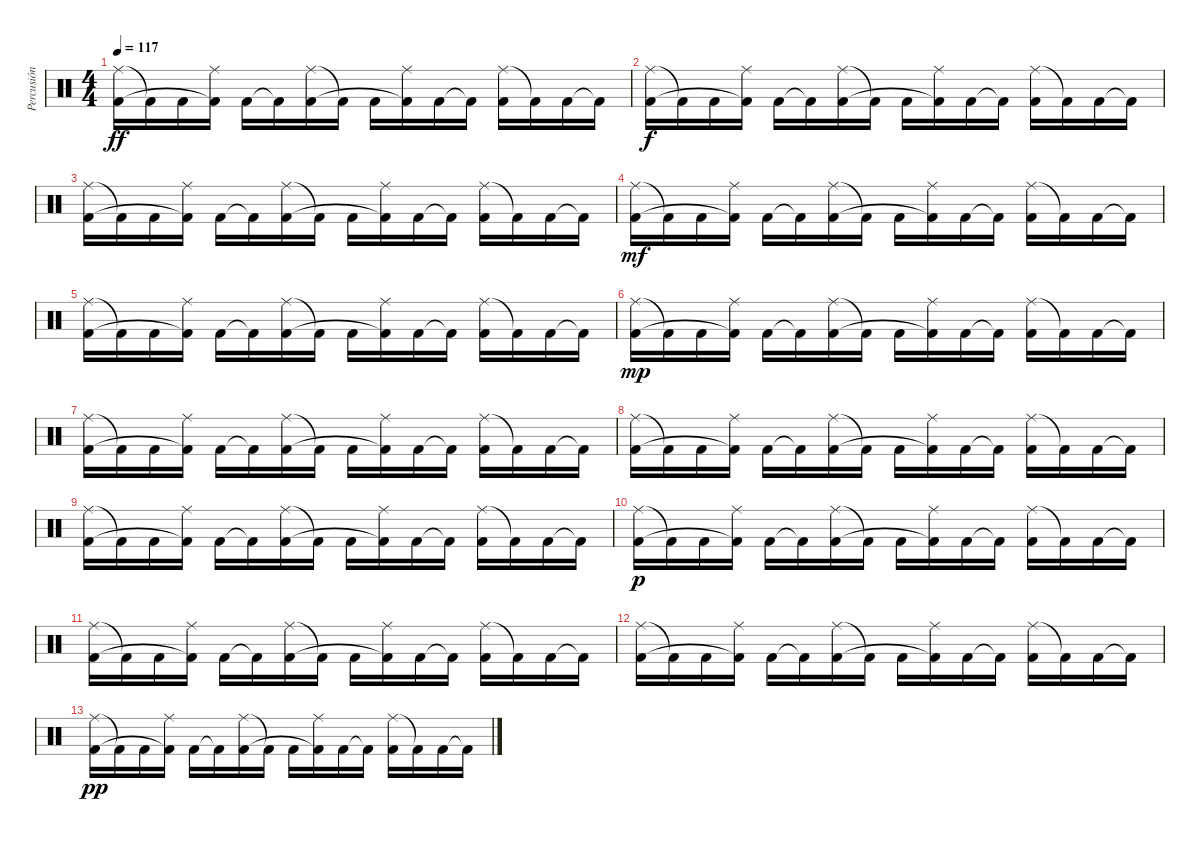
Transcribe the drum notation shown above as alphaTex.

\track ("Percusión" "Percusión") {instrument percussion}
\staff {score}
\articulation defaults
\ts (4 4)
\tempo 117
\clef neutral
\ks c
("Ride (middle)" "Kick (hit) 2").16{dy ff} "Kick (hit) 2"{t}.16 "Kick (hit) 2".16 ("Ride (middle)" "Kick (hit) 2"{t}).16 "Kick (hit) 2".16 "Kick (hit) 2"{t}.16 ("Ride (middle)" "Kick (hit) 2").16 "Kick (hit) 2"{t}.16 "Kick (hit) 2".16 ("Ride (middle)" "Kick (hit) 2"{t}).16 "Kick (hit) 2".16 "Kick (hit) 2"{t}.16 ("Ride (middle)" "Kick (hit) 2").16 "Kick (hit) 2"{t}.16 "Kick (hit) 2".16 "Kick (hit) 2"{t}.16 |
("Ride (middle)" "Kick (hit) 2").16{dy f} "Kick (hit) 2"{t}.16 "Kick (hit) 2".16 ("Ride (middle)" "Kick (hit) 2"{t}).16 "Kick (hit) 2".16 "Kick (hit) 2"{t}.16 ("Ride (middle)" "Kick (hit) 2").16 "Kick (hit) 2"{t}.16 "Kick (hit) 2".16 ("Ride (middle)" "Kick (hit) 2"{t}).16 "Kick (hit) 2".16 "Kick (hit) 2"{t}.16 ("Ride (middle)" "Kick (hit) 2").16 "Kick (hit) 2"{t}.16 "Kick (hit) 2".16 "Kick (hit) 2"{t}.16 |
("Ride (middle)" "Kick (hit) 2").16 "Kick (hit) 2"{t}.16 "Kick (hit) 2".16 ("Ride (middle)" "Kick (hit) 2"{t}).16 "Kick (hit) 2".16 "Kick (hit) 2"{t}.16 ("Ride (middle)" "Kick (hit) 2").16 "Kick (hit) 2"{t}.16 "Kick (hit) 2".16 ("Ride (middle)" "Kick (hit) 2"{t}).16 "Kick (hit) 2".16 "Kick (hit) 2"{t}.16 ("Ride (middle)" "Kick (hit) 2").16 "Kick (hit) 2"{t}.16 "Kick (hit) 2".16 "Kick (hit) 2"{t}.16 |
("Ride (middle)" "Kick (hit) 2").16{dy mf} "Kick (hit) 2"{t}.16 "Kick (hit) 2".16 ("Ride (middle)" "Kick (hit) 2"{t}).16 "Kick (hit) 2".16 "Kick (hit) 2"{t}.16 ("Ride (middle)" "Kick (hit) 2").16 "Kick (hit) 2"{t}.16 "Kick (hit) 2".16 ("Ride (middle)" "Kick (hit) 2"{t}).16 "Kick (hit) 2".16 "Kick (hit) 2"{t}.16 ("Ride (middle)" "Kick (hit) 2").16 "Kick (hit) 2"{t}.16 "Kick (hit) 2".16 "Kick (hit) 2"{t}.16 |
("Ride (middle)" "Kick (hit) 2").16 "Kick (hit) 2"{t}.16 "Kick (hit) 2".16 ("Ride (middle)" "Kick (hit) 2"{t}).16 "Kick (hit) 2".16 "Kick (hit) 2"{t}.16 ("Ride (middle)" "Kick (hit) 2").16 "Kick (hit) 2"{t}.16 "Kick (hit) 2".16 ("Ride (middle)" "Kick (hit) 2"{t}).16 "Kick (hit) 2".16 "Kick (hit) 2"{t}.16 ("Ride (middle)" "Kick (hit) 2").16 "Kick (hit) 2"{t}.16 "Kick (hit) 2".16 "Kick (hit) 2"{t}.16 |
("Ride (middle)" "Kick (hit) 2").16{dy mp} "Kick (hit) 2"{t}.16 "Kick (hit) 2".16 ("Ride (middle)" "Kick (hit) 2"{t}).16 "Kick (hit) 2".16 "Kick (hit) 2"{t}.16 ("Ride (middle)" "Kick (hit) 2").16 "Kick (hit) 2"{t}.16 "Kick (hit) 2".16 ("Ride (middle)" "Kick (hit) 2"{t}).16 "Kick (hit) 2".16 "Kick (hit) 2"{t}.16 ("Ride (middle)" "Kick (hit) 2").16 "Kick (hit) 2"{t}.16 "Kick (hit) 2".16 "Kick (hit) 2"{t}.16 |
("Ride (middle)" "Kick (hit) 2").16 "Kick (hit) 2"{t}.16 "Kick (hit) 2".16 ("Ride (middle)" "Kick (hit) 2"{t}).16 "Kick (hit) 2".16 "Kick (hit) 2"{t}.16 ("Ride (middle)" "Kick (hit) 2").16 "Kick (hit) 2"{t}.16 "Kick (hit) 2".16 ("Ride (middle)" "Kick (hit) 2"{t}).16 "Kick (hit) 2".16 "Kick (hit) 2"{t}.16 ("Ride (middle)" "Kick (hit) 2").16 "Kick (hit) 2"{t}.16 "Kick (hit) 2".16 "Kick (hit) 2"{t}.16 |
("Ride (middle)" "Kick (hit) 2").16 "Kick (hit) 2"{t}.16 "Kick (hit) 2".16 ("Ride (middle)" "Kick (hit) 2"{t}).16 "Kick (hit) 2".16 "Kick (hit) 2"{t}.16 ("Ride (middle)" "Kick (hit) 2").16 "Kick (hit) 2"{t}.16 "Kick (hit) 2".16 ("Ride (middle)" "Kick (hit) 2"{t}).16 "Kick (hit) 2".16 "Kick (hit) 2"{t}.16 ("Ride (middle)" "Kick (hit) 2").16 "Kick (hit) 2"{t}.16 "Kick (hit) 2".16 "Kick (hit) 2"{t}.16 |
("Ride (middle)" "Kick (hit) 2").16 "Kick (hit) 2"{t}.16 "Kick (hit) 2".16 ("Ride (middle)" "Kick (hit) 2"{t}).16 "Kick (hit) 2".16 "Kick (hit) 2"{t}.16 ("Ride (middle)" "Kick (hit) 2").16 "Kick (hit) 2"{t}.16 "Kick (hit) 2".16 ("Ride (middle)" "Kick (hit) 2"{t}).16 "Kick (hit) 2".16 "Kick (hit) 2"{t}.16 ("Ride (middle)" "Kick (hit) 2").16 "Kick (hit) 2"{t}.16 "Kick (hit) 2".16 "Kick (hit) 2"{t}.16 |
("Ride (middle)" "Kick (hit) 2").16{dy p} "Kick (hit) 2"{t}.16 "Kick (hit) 2".16 ("Ride (middle)" "Kick (hit) 2"{t}).16 "Kick (hit) 2".16 "Kick (hit) 2"{t}.16 ("Ride (middle)" "Kick (hit) 2").16 "Kick (hit) 2"{t}.16 "Kick (hit) 2".16 ("Ride (middle)" "Kick (hit) 2"{t}).16 "Kick (hit) 2".16 "Kick (hit) 2"{t}.16 ("Ride (middle)" "Kick (hit) 2").16 "Kick (hit) 2"{t}.16 "Kick (hit) 2".16 "Kick (hit) 2"{t}.16 |
("Ride (middle)" "Kick (hit) 2").16 "Kick (hit) 2"{t}.16 "Kick (hit) 2".16 ("Ride (middle)" "Kick (hit) 2"{t}).16 "Kick (hit) 2".16 "Kick (hit) 2"{t}.16 ("Ride (middle)" "Kick (hit) 2").16 "Kick (hit) 2"{t}.16 "Kick (hit) 2".16 ("Ride (middle)" "Kick (hit) 2"{t}).16 "Kick (hit) 2".16 "Kick (hit) 2"{t}.16 ("Ride (middle)" "Kick (hit) 2").16 "Kick (hit) 2"{t}.16 "Kick (hit) 2".16 "Kick (hit) 2"{t}.16 |
("Ride (middle)" "Kick (hit) 2").16 "Kick (hit) 2"{t}.16 "Kick (hit) 2".16 ("Ride (middle)" "Kick (hit) 2"{t}).16 "Kick (hit) 2".16 "Kick (hit) 2"{t}.16 ("Ride (middle)" "Kick (hit) 2").16 "Kick (hit) 2"{t}.16 "Kick (hit) 2".16 ("Ride (middle)" "Kick (hit) 2"{t}).16 "Kick (hit) 2".16 "Kick (hit) 2"{t}.16 ("Ride (middle)" "Kick (hit) 2").16 "Kick (hit) 2"{t}.16 "Kick (hit) 2".16 "Kick (hit) 2"{t}.16 |
("Ride (middle)" "Kick (hit) 2").16{dy pp} "Kick (hit) 2"{t}.16 "Kick (hit) 2".16 ("Ride (middle)" "Kick (hit) 2"{t}).16 "Kick (hit) 2".16 "Kick (hit) 2"{t}.16 ("Ride (middle)" "Kick (hit) 2").16 "Kick (hit) 2"{t}.16 "Kick (hit) 2".16 ("Ride (middle)" "Kick (hit) 2"{t}).16 "Kick (hit) 2".16 "Kick (hit) 2"{t}.16 ("Ride (middle)" "Kick (hit) 2").16 "Kick (hit) 2"{t}.16 "Kick (hit) 2".16 "Kick (hit) 2"{t}.16
